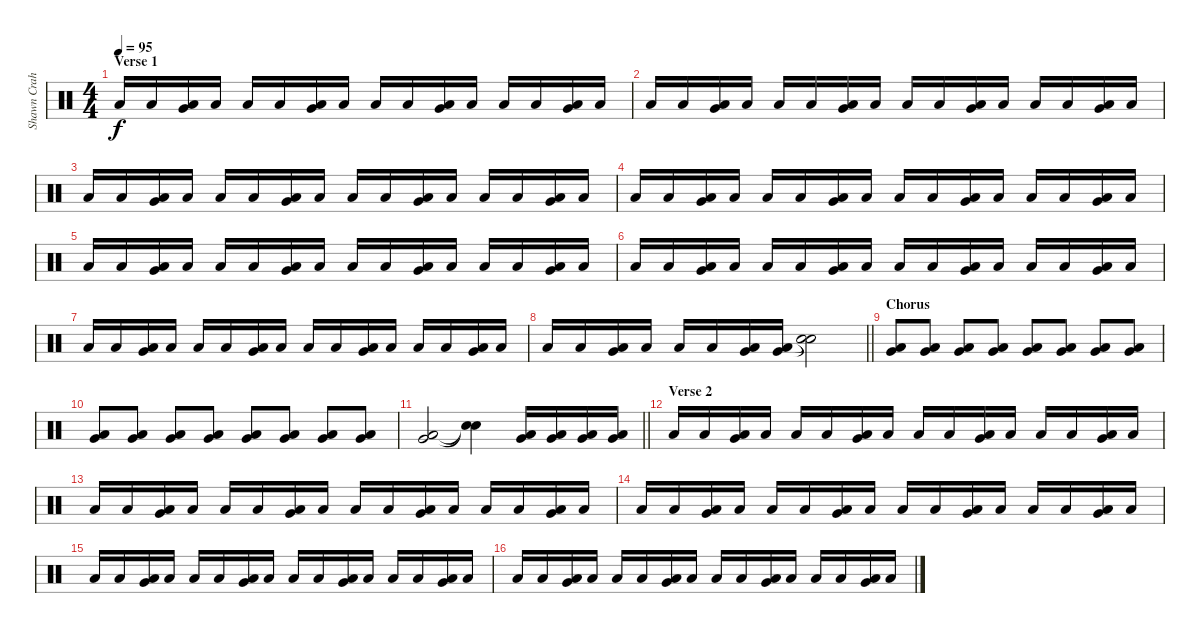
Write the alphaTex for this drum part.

\track ("Shawn Crahan" "Shawn Crah") {instrument percussion}
\staff {score}
\articulation defaults
\ts (4 4)
\section ("" "Verse 1")
\tempo 95
\clef neutral
\ks c "Low Floor Tom (hit)".16{dy f} "Low Floor Tom (hit)".16
("Very Low Tom (hit)" "Low Floor Tom (hit)").16 "Low Floor Tom (hit)".16 "Low Floor Tom (hit)".16 "Low Floor Tom (hit)".16 ("Very Low Tom (hit)" "Low Floor Tom (hit)").16 "Low Floor Tom (hit)".16 "Low Floor Tom (hit)".16 "Low Floor Tom (hit)".16 ("Very Low Tom (hit)" "Low Floor Tom (hit)").16 "Low Floor Tom (hit)".16 "Low Floor Tom (hit)".16 "Low Floor Tom (hit)".16 ("Very Low Tom (hit)" "Low Floor Tom (hit)").16 "Low Floor Tom (hit)".16 |
"Low Floor Tom (hit)".16 "Low Floor Tom (hit)".16 ("Very Low Tom (hit)" "Low Floor Tom (hit)").16 "Low Floor Tom (hit)".16 "Low Floor Tom (hit)".16 "Low Floor Tom (hit)".16 ("Very Low Tom (hit)" "Low Floor Tom (hit)").16 "Low Floor Tom (hit)".16 "Low Floor Tom (hit)".16 "Low Floor Tom (hit)".16 ("Very Low Tom (hit)" "Low Floor Tom (hit)").16 "Low Floor Tom (hit)".16 "Low Floor Tom (hit)".16 "Low Floor Tom (hit)".16 ("Very Low Tom (hit)" "Low Floor Tom (hit)").16 "Low Floor Tom (hit)".16 |
"Low Floor Tom (hit)".16 "Low Floor Tom (hit)".16 ("Very Low Tom (hit)" "Low Floor Tom (hit)").16 "Low Floor Tom (hit)".16 "Low Floor Tom (hit)".16 "Low Floor Tom (hit)".16 ("Very Low Tom (hit)" "Low Floor Tom (hit)").16 "Low Floor Tom (hit)".16 "Low Floor Tom (hit)".16 "Low Floor Tom (hit)".16 ("Very Low Tom (hit)" "Low Floor Tom (hit)").16 "Low Floor Tom (hit)".16 "Low Floor Tom (hit)".16 "Low Floor Tom (hit)".16 ("Very Low Tom (hit)" "Low Floor Tom (hit)").16 "Low Floor Tom (hit)".16 |
"Low Floor Tom (hit)".16 "Low Floor Tom (hit)".16 ("Very Low Tom (hit)" "Low Floor Tom (hit)").16 "Low Floor Tom (hit)".16 "Low Floor Tom (hit)".16 "Low Floor Tom (hit)".16 ("Very Low Tom (hit)" "Low Floor Tom (hit)").16 "Low Floor Tom (hit)".16 "Low Floor Tom (hit)".16 "Low Floor Tom (hit)".16 ("Very Low Tom (hit)" "Low Floor Tom (hit)").16 "Low Floor Tom (hit)".16 "Low Floor Tom (hit)".16 "Low Floor Tom (hit)".16 ("Very Low Tom (hit)" "Low Floor Tom (hit)").16 "Low Floor Tom (hit)".16 |
"Low Floor Tom (hit)".16 "Low Floor Tom (hit)".16 ("Very Low Tom (hit)" "Low Floor Tom (hit)").16 "Low Floor Tom (hit)".16 "Low Floor Tom (hit)".16 "Low Floor Tom (hit)".16 ("Very Low Tom (hit)" "Low Floor Tom (hit)").16 "Low Floor Tom (hit)".16 "Low Floor Tom (hit)".16 "Low Floor Tom (hit)".16 ("Very Low Tom (hit)" "Low Floor Tom (hit)").16 "Low Floor Tom (hit)".16 "Low Floor Tom (hit)".16 "Low Floor Tom (hit)".16 ("Very Low Tom (hit)" "Low Floor Tom (hit)").16 "Low Floor Tom (hit)".16 |
"Low Floor Tom (hit)".16 "Low Floor Tom (hit)".16 ("Very Low Tom (hit)" "Low Floor Tom (hit)").16 "Low Floor Tom (hit)".16 "Low Floor Tom (hit)".16 "Low Floor Tom (hit)".16 ("Very Low Tom (hit)" "Low Floor Tom (hit)").16 "Low Floor Tom (hit)".16 "Low Floor Tom (hit)".16 "Low Floor Tom (hit)".16 ("Very Low Tom (hit)" "Low Floor Tom (hit)").16 "Low Floor Tom (hit)".16 "Low Floor Tom (hit)".16 "Low Floor Tom (hit)".16 ("Very Low Tom (hit)" "Low Floor Tom (hit)").16 "Low Floor Tom (hit)".16 |
"Low Floor Tom (hit)".16 "Low Floor Tom (hit)".16 ("Very Low Tom (hit)" "Low Floor Tom (hit)").16 "Low Floor Tom (hit)".16 "Low Floor Tom (hit)".16 "Low Floor Tom (hit)".16 ("Very Low Tom (hit)" "Low Floor Tom (hit)").16 "Low Floor Tom (hit)".16 "Low Floor Tom (hit)".16 "Low Floor Tom (hit)".16 ("Very Low Tom (hit)" "Low Floor Tom (hit)").16 "Low Floor Tom (hit)".16 "Low Floor Tom (hit)".16 "Low Floor Tom (hit)".16 ("Very Low Tom (hit)" "Low Floor Tom (hit)").16 "Low Floor Tom (hit)".16 |
\barLineRight lightlight "Low Floor Tom (hit)".16 "Low Floor Tom (hit)".16
("Very Low Tom (hit)" "Low Floor Tom (hit)").16 "Low Floor Tom (hit)".16 "Low Floor Tom (hit)".16 "Low Floor Tom (hit)".16 ("Very Low Tom (hit)" "Low Floor Tom (hit)").16 ("Very Low Tom (hit)" "Low Floor Tom (hit)").16 ("Snare (hit)"{t} "Snare (hit)"{t}).2 |
\section ("" "Chorus")
("Very Low Tom (hit)" "Low Floor Tom (hit)").8 ("Very Low Tom (hit)" "Low Floor Tom (hit)").8 ("Very Low Tom (hit)" "Low Floor Tom (hit)").8 ("Very Low Tom (hit)" "Low Floor Tom (hit)").8 ("Very Low Tom (hit)" "Low Floor Tom (hit)").8 ("Very Low Tom (hit)" "Low Floor Tom (hit)").8 ("Very Low Tom (hit)" "Low Floor Tom (hit)").8 ("Very Low Tom (hit)" "Low Floor Tom (hit)").8 |
("Very Low Tom (hit)" "Low Floor Tom (hit)").8 ("Very Low Tom (hit)" "Low Floor Tom (hit)").8 ("Very Low Tom (hit)" "Low Floor Tom (hit)").8 ("Very Low Tom (hit)" "Low Floor Tom (hit)").8 ("Very Low Tom (hit)" "Low Floor Tom (hit)").8 ("Very Low Tom (hit)" "Low Floor Tom (hit)").8 ("Very Low Tom (hit)" "Low Floor Tom (hit)").8 ("Very Low Tom (hit)" "Low Floor Tom (hit)").8 |
\barLineRight lightlight
("Very Low Tom (hit)" "Low Floor Tom (hit)").2 ("Snare (hit)"{t} "Snare (hit)"{t}).4 ("Very Low Tom (hit)" "Low Floor Tom (hit)").16 ("Very Low Tom (hit)" "Low Floor Tom (hit)").16 ("Very Low Tom (hit)" "Low Floor Tom (hit)").16 ("Very Low Tom (hit)" "Low Floor Tom (hit)").16 |
\section ("" "Verse 2")
"Low Floor Tom (hit)".16 "Low Floor Tom (hit)".16 ("Very Low Tom (hit)" "Low Floor Tom (hit)").16 "Low Floor Tom (hit)".16 "Low Floor Tom (hit)".16 "Low Floor Tom (hit)".16 ("Very Low Tom (hit)" "Low Floor Tom (hit)").16 "Low Floor Tom (hit)".16 "Low Floor Tom (hit)".16 "Low Floor Tom (hit)".16 ("Very Low Tom (hit)" "Low Floor Tom (hit)").16 "Low Floor Tom (hit)".16 "Low Floor Tom (hit)".16 "Low Floor Tom (hit)".16 ("Very Low Tom (hit)" "Low Floor Tom (hit)").16 "Low Floor Tom (hit)".16 |
"Low Floor Tom (hit)".16 "Low Floor Tom (hit)".16 ("Very Low Tom (hit)" "Low Floor Tom (hit)").16 "Low Floor Tom (hit)".16 "Low Floor Tom (hit)".16 "Low Floor Tom (hit)".16 ("Very Low Tom (hit)" "Low Floor Tom (hit)").16 "Low Floor Tom (hit)".16 "Low Floor Tom (hit)".16 "Low Floor Tom (hit)".16 ("Very Low Tom (hit)" "Low Floor Tom (hit)").16 "Low Floor Tom (hit)".16 "Low Floor Tom (hit)".16 "Low Floor Tom (hit)".16 ("Very Low Tom (hit)" "Low Floor Tom (hit)").16 "Low Floor Tom (hit)".16 |
"Low Floor Tom (hit)".16 "Low Floor Tom (hit)".16 ("Very Low Tom (hit)" "Low Floor Tom (hit)").16 "Low Floor Tom (hit)".16 "Low Floor Tom (hit)".16 "Low Floor Tom (hit)".16 ("Very Low Tom (hit)" "Low Floor Tom (hit)").16 "Low Floor Tom (hit)".16 "Low Floor Tom (hit)".16 "Low Floor Tom (hit)".16 ("Very Low Tom (hit)" "Low Floor Tom (hit)").16 "Low Floor Tom (hit)".16 "Low Floor Tom (hit)".16 "Low Floor Tom (hit)".16 ("Very Low Tom (hit)" "Low Floor Tom (hit)").16 "Low Floor Tom (hit)".16 |
"Low Floor Tom (hit)".16 "Low Floor Tom (hit)".16 ("Very Low Tom (hit)" "Low Floor Tom (hit)").16 "Low Floor Tom (hit)".16 "Low Floor Tom (hit)".16 "Low Floor Tom (hit)".16 ("Very Low Tom (hit)" "Low Floor Tom (hit)").16 "Low Floor Tom (hit)".16 "Low Floor Tom (hit)".16 "Low Floor Tom (hit)".16 ("Very Low Tom (hit)" "Low Floor Tom (hit)").16 "Low Floor Tom (hit)".16 "Low Floor Tom (hit)".16 "Low Floor Tom (hit)".16 ("Very Low Tom (hit)" "Low Floor Tom (hit)").16 "Low Floor Tom (hit)".16 |
"Low Floor Tom (hit)".16 "Low Floor Tom (hit)".16 ("Very Low Tom (hit)" "Low Floor Tom (hit)").16 "Low Floor Tom (hit)".16 "Low Floor Tom (hit)".16 "Low Floor Tom (hit)".16 ("Very Low Tom (hit)" "Low Floor Tom (hit)").16 "Low Floor Tom (hit)".16 "Low Floor Tom (hit)".16 "Low Floor Tom (hit)".16 ("Very Low Tom (hit)" "Low Floor Tom (hit)").16 "Low Floor Tom (hit)".16 "Low Floor Tom (hit)".16 "Low Floor Tom (hit)".16 ("Very Low Tom (hit)" "Low Floor Tom (hit)").16 "Low Floor Tom (hit)".16
